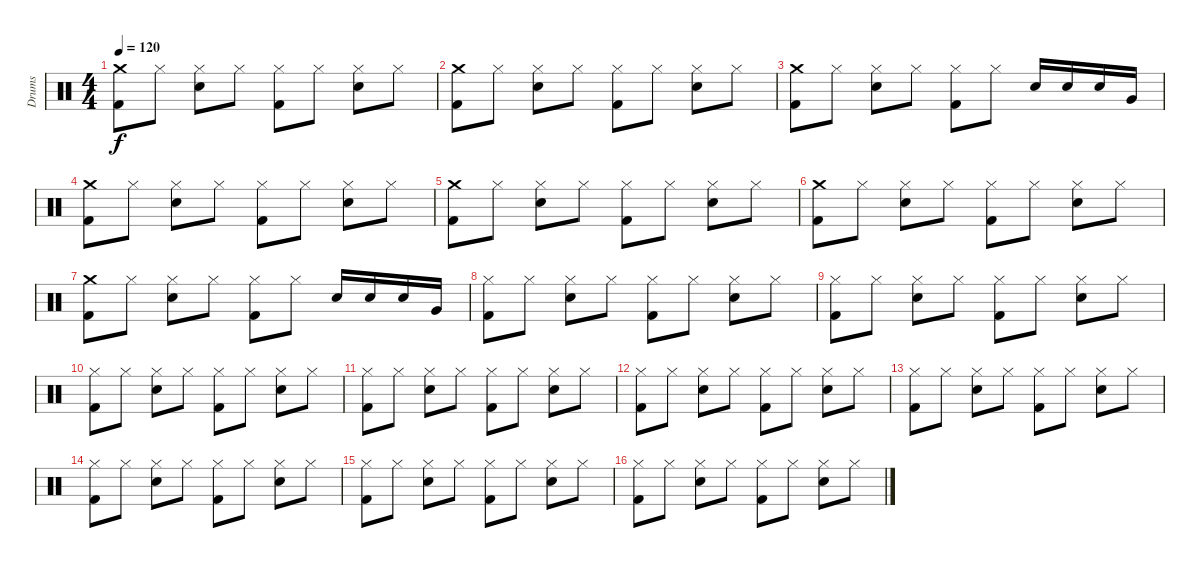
\track ("Drums" "Drums") {instrument percussion}
\staff {score}
\articulation defaults
\ts (4 4)
\tempo 120
\clef neutral
\ks c
("Crash medium (hit)" "Kick (hit) 2").8{dy f} "Hi-Hat (closed)".8 ("Hi-Hat (closed)" "Snare (hit) 2").8 "Hi-Hat (closed)".8 ("Hi-Hat (closed)" "Kick (hit) 2").8 "Hi-Hat (closed)".8 ("Hi-Hat (closed)" "Snare (hit) 2").8 "Hi-Hat (closed)".8 |
("Crash medium (hit)" "Kick (hit) 2").8 "Hi-Hat (closed)".8 ("Hi-Hat (closed)" "Snare (hit) 2").8 "Hi-Hat (closed)".8 ("Hi-Hat (closed)" "Kick (hit) 2").8 "Hi-Hat (closed)".8 ("Hi-Hat (closed)" "Snare (hit) 2").8 "Hi-Hat (closed)".8 |
("Crash medium (hit)" "Kick (hit) 2").8 "Hi-Hat (closed)".8 ("Hi-Hat (closed)" "Snare (hit) 2").8 "Hi-Hat (closed)".8 ("Hi-Hat (closed)" "Kick (hit) 2").8 "Hi-Hat (closed)".8 "Snare (hit) 2".16 "Snare (hit) 2".16 "Snare (hit) 2".16 "Very Low Tom (hit)".16 |
("Crash medium (hit)" "Kick (hit) 2").8 "Hi-Hat (closed)".8 ("Hi-Hat (closed)" "Snare (hit) 2").8 "Hi-Hat (closed)".8 ("Hi-Hat (closed)" "Kick (hit) 2").8 "Hi-Hat (closed)".8 ("Hi-Hat (closed)" "Snare (hit) 2").8 "Hi-Hat (closed)".8 |
("Crash medium (hit)" "Kick (hit) 2").8 "Hi-Hat (closed)".8 ("Hi-Hat (closed)" "Snare (hit) 2").8 "Hi-Hat (closed)".8 ("Hi-Hat (closed)" "Kick (hit) 2").8 "Hi-Hat (closed)".8 ("Hi-Hat (closed)" "Snare (hit) 2").8 "Hi-Hat (closed)".8 |
("Crash medium (hit)" "Kick (hit) 2").8 "Hi-Hat (closed)".8 ("Hi-Hat (closed)" "Snare (hit) 2").8 "Hi-Hat (closed)".8 ("Hi-Hat (closed)" "Kick (hit) 2").8 "Hi-Hat (closed)".8 ("Hi-Hat (closed)" "Snare (hit) 2").8 "Hi-Hat (closed)".8 |
("Crash medium (hit)" "Kick (hit) 2").8 "Hi-Hat (closed)".8 ("Hi-Hat (closed)" "Snare (hit) 2").8 "Hi-Hat (closed)".8 ("Hi-Hat (closed)" "Kick (hit) 2").8 "Hi-Hat (closed)".8 "Snare (hit) 2".16 "Snare (hit) 2".16 "Snare (hit) 2".16 "Very Low Tom (hit)".16 |
("Hi-Hat (closed)" "Kick (hit) 2").8 "Hi-Hat (closed)".8 ("Hi-Hat (closed)" "Snare (hit) 2").8 "Hi-Hat (closed)".8 ("Hi-Hat (closed)" "Kick (hit) 2").8 "Hi-Hat (closed)".8 ("Hi-Hat (closed)" "Snare (hit) 2").8 "Hi-Hat (closed)".8 |
("Hi-Hat (closed)" "Kick (hit) 2").8 "Hi-Hat (closed)".8 ("Hi-Hat (closed)" "Snare (hit) 2").8 "Hi-Hat (closed)".8 ("Hi-Hat (closed)" "Kick (hit) 2").8 "Hi-Hat (closed)".8 ("Hi-Hat (closed)" "Snare (hit) 2").8 "Hi-Hat (closed)".8 |
("Hi-Hat (closed)" "Kick (hit) 2").8 "Hi-Hat (closed)".8 ("Hi-Hat (closed)" "Snare (hit) 2").8 "Hi-Hat (closed)".8 ("Hi-Hat (closed)" "Kick (hit) 2").8 "Hi-Hat (closed)".8 ("Hi-Hat (closed)" "Snare (hit) 2").8 "Hi-Hat (closed)".8 |
("Hi-Hat (closed)" "Kick (hit) 2").8 "Hi-Hat (closed)".8 ("Hi-Hat (closed)" "Snare (hit) 2").8 "Hi-Hat (closed)".8 ("Hi-Hat (closed)" "Kick (hit) 2").8 "Hi-Hat (closed)".8 ("Hi-Hat (closed)" "Snare (hit) 2").8 "Hi-Hat (closed)".8 |
("Hi-Hat (closed)" "Kick (hit) 2").8 "Hi-Hat (closed)".8 ("Hi-Hat (closed)" "Snare (hit) 2").8 "Hi-Hat (closed)".8 ("Hi-Hat (closed)" "Kick (hit) 2").8 "Hi-Hat (closed)".8 ("Hi-Hat (closed)" "Snare (hit) 2").8 "Hi-Hat (closed)".8 |
("Hi-Hat (closed)" "Kick (hit) 2").8 "Hi-Hat (closed)".8 ("Hi-Hat (closed)" "Snare (hit) 2").8 "Hi-Hat (closed)".8 ("Hi-Hat (closed)" "Kick (hit) 2").8 "Hi-Hat (closed)".8 ("Hi-Hat (closed)" "Snare (hit) 2").8 "Hi-Hat (closed)".8 |
("Hi-Hat (closed)" "Kick (hit) 2").8 "Hi-Hat (closed)".8 ("Hi-Hat (closed)" "Snare (hit) 2").8 "Hi-Hat (closed)".8 ("Hi-Hat (closed)" "Kick (hit) 2").8 "Hi-Hat (closed)".8 ("Hi-Hat (closed)" "Snare (hit) 2").8 "Hi-Hat (closed)".8 |
("Hi-Hat (closed)" "Kick (hit) 2").8 "Hi-Hat (closed)".8 ("Hi-Hat (closed)" "Snare (hit) 2").8 "Hi-Hat (closed)".8 ("Hi-Hat (closed)" "Kick (hit) 2").8 "Hi-Hat (closed)".8 ("Hi-Hat (closed)" "Snare (hit) 2").8 "Hi-Hat (closed)".8 |
("Hi-Hat (closed)" "Kick (hit) 2").8 "Hi-Hat (closed)".8 ("Hi-Hat (closed)" "Snare (hit) 2").8 "Hi-Hat (closed)".8 ("Hi-Hat (closed)" "Kick (hit) 2").8 "Hi-Hat (closed)".8 ("Hi-Hat (closed)" "Snare (hit) 2").8 "Hi-Hat (closed)".8
